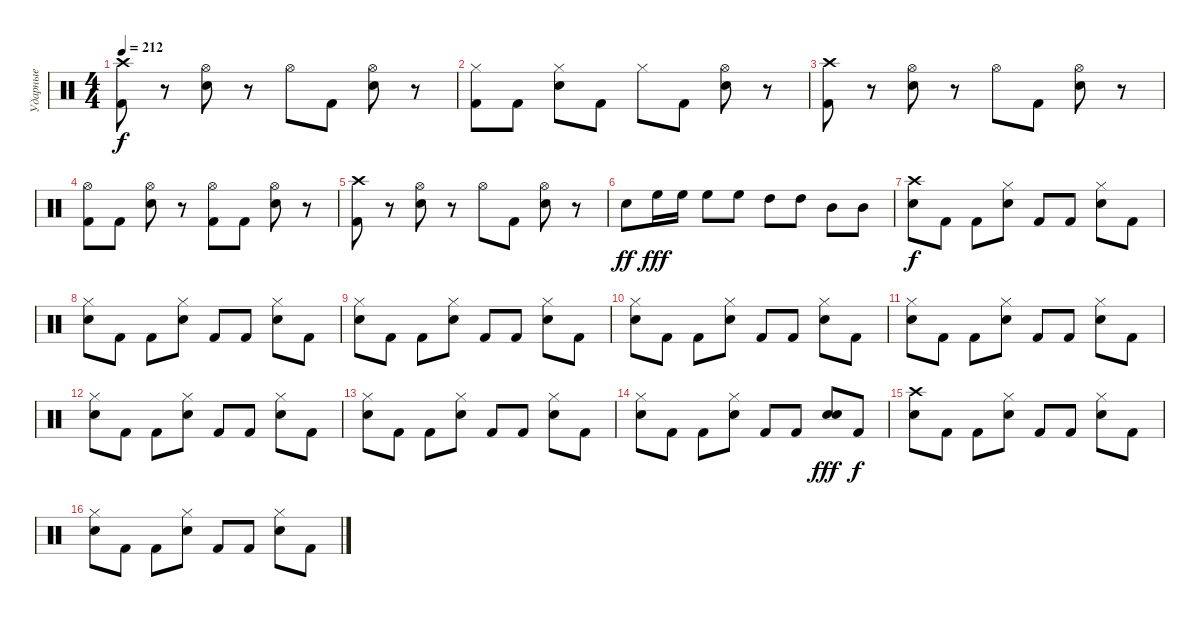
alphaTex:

\track ("Ударные" "Ударные") {instrument percussion}
\staff {score}
\articulation defaults
\ts (4 4)
\tempo 212
\clef neutral
\ks c
("Crash high (hit)" "Kick (hit) 2").8{dy f} r.8 ("Hi-Hat (open)" "Electric Snare (hit)").8 r.8 "Hi-Hat (open)".8 "Kick (hit) 2".8 ("Hi-Hat (open)" "Electric Snare (hit)").8 r.8 |
("Hi-Hat (closed)" "Kick (hit) 2").8 "Kick (hit) 2".8 ("Hi-Hat (closed)" "Electric Snare (hit)").8 "Kick (hit) 2".8 "Hi-Hat (closed)".8 "Kick (hit) 2".8 ("Hi-Hat (open)" "Electric Snare (hit)").8 r.8 |
("Crash high (hit)" "Kick (hit) 2").8 r.8 ("Hi-Hat (open)" "Electric Snare (hit)").8 r.8 "Hi-Hat (open)".8 "Kick (hit) 2".8 ("Hi-Hat (open)" "Electric Snare (hit)").8 r.8 |
("Hi-Hat (open)" "Kick (hit) 2").8 "Kick (hit) 2".8 ("Hi-Hat (open)" "Electric Snare (hit)").8 r.8 ("Hi-Hat (open)" "Kick (hit) 2").8 "Kick (hit) 2".8 ("Hi-Hat (open)" "Electric Snare (hit)").8 r.8 |
("Crash high (hit)" "Kick (hit) 2").8 r.8 ("Hi-Hat (open)" "Electric Snare (hit)").8 r.8 "Hi-Hat (open)".8 "Kick (hit) 2".8 ("Hi-Hat (open)" "Electric Snare (hit)").8 r.8 |
"Electric Snare (hit)".8{dy ff} "High Floor Tom (hit)".16{dy fff} "High Floor Tom (hit)".16 "High Floor Tom (hit)".8 "High Floor Tom (hit)".8 "High Tom (hit)".8 "High Tom (hit)".8 "Mid Tom (hit)".8 "Mid Tom (hit)".8 |
("Crash high (hit)" "Electric Snare (hit)").8{dy f} "Kick (hit) 2".8 "Kick (hit) 2".8 ("Hi-Hat (closed)" "Electric Snare (hit)").8 "Kick (hit) 2".8 "Kick (hit) 2".8 ("Hi-Hat (closed)" "Electric Snare (hit)").8 "Kick (hit) 2".8 |
("Hi-Hat (closed)" "Electric Snare (hit)").8 "Kick (hit) 2".8 "Kick (hit) 2".8 ("Hi-Hat (closed)" "Electric Snare (hit)").8 "Kick (hit) 2".8 "Kick (hit) 2".8 ("Hi-Hat (closed)" "Electric Snare (hit)").8 "Kick (hit) 2".8 |
("Hi-Hat (closed)" "Electric Snare (hit)").8 "Kick (hit) 2".8 "Kick (hit) 2".8 ("Hi-Hat (closed)" "Electric Snare (hit)").8 "Kick (hit) 2".8 "Kick (hit) 2".8 ("Hi-Hat (closed)" "Electric Snare (hit)").8 "Kick (hit) 2".8 |
("Hi-Hat (closed)" "Electric Snare (hit)").8 "Kick (hit) 2".8 "Kick (hit) 2".8 ("Hi-Hat (closed)" "Electric Snare (hit)").8 "Kick (hit) 2".8 "Kick (hit) 2".8 ("Hi-Hat (closed)" "Electric Snare (hit)").8 "Kick (hit) 2".8 |
("Hi-Hat (closed)" "Electric Snare (hit)").8 "Kick (hit) 2".8 "Kick (hit) 2".8 ("Hi-Hat (closed)" "Electric Snare (hit)").8 "Kick (hit) 2".8 "Kick (hit) 2".8 ("Hi-Hat (closed)" "Electric Snare (hit)").8 "Kick (hit) 2".8 |
("Hi-Hat (closed)" "Electric Snare (hit)").8 "Kick (hit) 2".8 "Kick (hit) 2".8 ("Hi-Hat (closed)" "Electric Snare (hit)").8 "Kick (hit) 2".8 "Kick (hit) 2".8 ("Hi-Hat (closed)" "Electric Snare (hit)").8 "Kick (hit) 2".8 |
("Hi-Hat (closed)" "Electric Snare (hit)").8 "Kick (hit) 2".8 "Kick (hit) 2".8 ("Hi-Hat (closed)" "Electric Snare (hit)").8 "Kick (hit) 2".8 "Kick (hit) 2".8 ("Hi-Hat (closed)" "Electric Snare (hit)").8 "Kick (hit) 2".8 |
("Hi-Hat (closed)" "Electric Snare (hit)").8 "Kick (hit) 2".8 "Kick (hit) 2".8 ("Hi-Hat (closed)" "Electric Snare (hit)").8 "Kick (hit) 2".8 "Kick (hit) 2".8 ("Electric Snare (hit)" "Electric Snare (hit)").8{dy fff} "Kick (hit) 2".8{dy f} |
("Crash high (hit)" "Electric Snare (hit)").8 "Kick (hit) 2".8 "Kick (hit) 2".8 ("Hi-Hat (closed)" "Electric Snare (hit)").8 "Kick (hit) 2".8 "Kick (hit) 2".8 ("Hi-Hat (closed)" "Electric Snare (hit)").8 "Kick (hit) 2".8 |
("Hi-Hat (closed)" "Electric Snare (hit)").8 "Kick (hit) 2".8 "Kick (hit) 2".8 ("Hi-Hat (closed)" "Electric Snare (hit)").8 "Kick (hit) 2".8 "Kick (hit) 2".8 ("Hi-Hat (closed)" "Electric Snare (hit)").8 "Kick (hit) 2".8
